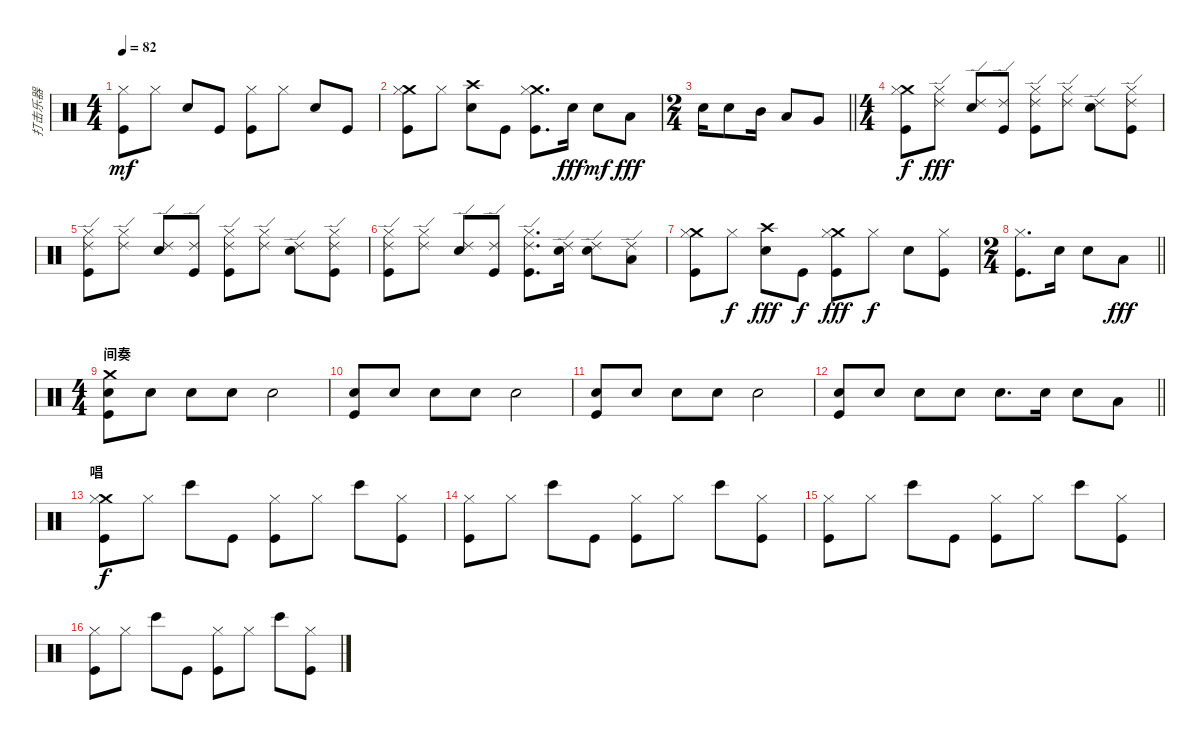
\track ("打击乐器" "打击乐器") {instrument percussion}
\staff {score}
\articulation defaults
\ts (4 4)
\tempo 82
\clef neutral
\ks c
("Hi-Hat (closed)" "Kick (hit)").8{dy mf} "Hi-Hat (closed)".8 "Electric Snare (hit)".8 "Kick (hit)".8 ("Hi-Hat (closed)" "Kick (hit)").8 "Hi-Hat (closed)".8 "Electric Snare (hit)".8 "Kick (hit)".8 |
("Crash medium (hit)" "Hi-Hat (closed)" "Kick (hit)").8 "Hi-Hat (closed)".8 ("Crash high (hit)" "Electric Snare (hit)").8 "Kick (hit)".8 ("Crash medium (hit)" "Hi-Hat (closed)" "Kick (hit)").8{d} "Electric Snare (hit)".16{dy fff} "Electric Snare (hit)".8{dy mf} "Low Tom (hit)".8{dy fff} |
\ts (2 4)
\barLineRight lightlight "Electric Snare (hit)".16 "Electric Snare (hit)".8 "Mid Tom (hit)".16 "Low Tom (hit)".8 "Very Low Tom (hit)".8
|
\ts (4 4)
\section ("" "")
("Crash medium (hit)" "Hi-Hat (closed)" "Kick (hit)").8{dy f} ("Ride (edge) 2" "Hi-Hat (closed)").8{dy fff} ("Ride (edge) 2" "Electric Snare (hit)").8 ("Ride (edge) 2" "Kick (hit)").8 ("Ride (edge) 2" "Hi-Hat (closed)" "Kick (hit)").8 ("Ride (edge) 2" "Hi-Hat (closed)").8 ("Ride (edge) 2" "Electric Snare (hit)").8 ("Ride (edge) 2" "Hi-Hat (closed)" "Kick (hit)").8 |
("Ride (edge) 2" "Hi-Hat (closed)" "Kick (hit)").8 ("Ride (edge) 2" "Hi-Hat (closed)").8 ("Ride (edge) 2" "Electric Snare (hit)").8 ("Ride (edge) 2" "Kick (hit)").8 ("Ride (edge) 2" "Hi-Hat (closed)" "Kick (hit)").8 ("Ride (edge) 2" "Hi-Hat (closed)").8 ("Ride (edge) 2" "Electric Snare (hit)").8 ("Ride (edge) 2" "Hi-Hat (closed)" "Kick (hit)").8 |
("Ride (edge) 2" "Hi-Hat (closed)" "Kick (hit)").8 ("Ride (edge) 2" "Hi-Hat (closed)").8 ("Ride (edge) 2" "Electric Snare (hit)").8 ("Ride (edge) 2" "Kick (hit)").8 ("Ride (edge) 2" "Hi-Hat (closed)" "Kick (hit)").8{d} ("Ride (edge) 2" "Electric Snare (hit)").16 ("Ride (edge) 2" "Electric Snare (hit)").8 ("Ride (edge) 2" "Low Tom (hit)").8 |
("Crash medium (hit)" "Hi-Hat (closed)" "Kick (hit)").8 "Hi-Hat (closed)".8{dy f} ("Crash high (hit)" "Electric Snare (hit)").8{dy fff} "Kick (hit)".8{dy f} ("Crash medium (hit)" "Hi-Hat (closed)" "Kick (hit)").8{dy fff} "Hi-Hat (closed)".8{dy f} "Electric Snare (hit)".8 ("Hi-Hat (closed)" "Kick (hit)").8 |
\ts (2 4)
\barLineRight lightlight
("Hi-Hat (closed)" "Kick (hit)").8{d} "Electric Snare (hit)".16 "Electric Snare (hit)".8 "Low Tom (hit)".8{dy fff} |
\ts (4 4)
\section ("" "间奏")
("Crash medium (hit)" "Electric Snare (hit)" "Kick (hit)").8 "Electric Snare (hit)".8 "Electric Snare (hit)".8 "Electric Snare (hit)".8 "Electric Snare (hit)".2 |
("Electric Snare (hit)" "Kick (hit)").8 "Electric Snare (hit)".8 "Electric Snare (hit)".8 "Electric Snare (hit)".8 "Electric Snare (hit)".2 |
("Electric Snare (hit)" "Kick (hit)").8 "Electric Snare (hit)".8 "Electric Snare (hit)".8 "Electric Snare (hit)".8 "Electric Snare (hit)".2 |
\barLineRight lightlight
("Electric Snare (hit)" "Kick (hit)").8 "Electric Snare (hit)".8 "Electric Snare (hit)".8 "Electric Snare (hit)".8 "Electric Snare (hit)".8{d} "Electric Snare (hit)".16 "Electric Snare (hit)".8 "Low Tom (hit)".8 |
\section ("" "唱")
("Crash medium (hit)" "Hi-Hat (closed)" "Kick (hit)").8{dy f} "Hi-Hat (closed)".8 "Bongo High (hit)".8 "Kick (hit)".8 ("Hi-Hat (closed)" "Kick (hit)").8 "Hi-Hat (closed)".8 "Bongo High (hit)".8 ("Hi-Hat (closed)" "Kick (hit)").8 |
("Hi-Hat (closed)" "Kick (hit)").8 "Hi-Hat (closed)".8 "Bongo High (hit)".8 "Kick (hit)".8 ("Hi-Hat (closed)" "Kick (hit)").8 "Hi-Hat (closed)".8 "Bongo High (hit)".8 ("Hi-Hat (closed)" "Kick (hit)").8 |
("Hi-Hat (closed)" "Kick (hit)").8 "Hi-Hat (closed)".8 "Bongo High (hit)".8 "Kick (hit)".8 ("Hi-Hat (closed)" "Kick (hit)").8 "Hi-Hat (closed)".8 "Bongo High (hit)".8 ("Hi-Hat (closed)" "Kick (hit)").8 |
("Hi-Hat (closed)" "Kick (hit)").8 "Hi-Hat (closed)".8 "Bongo High (hit)".8 "Kick (hit)".8 ("Hi-Hat (closed)" "Kick (hit)").8 "Hi-Hat (closed)".8 "Bongo High (hit)".8 ("Hi-Hat (closed)" "Kick (hit)").8
